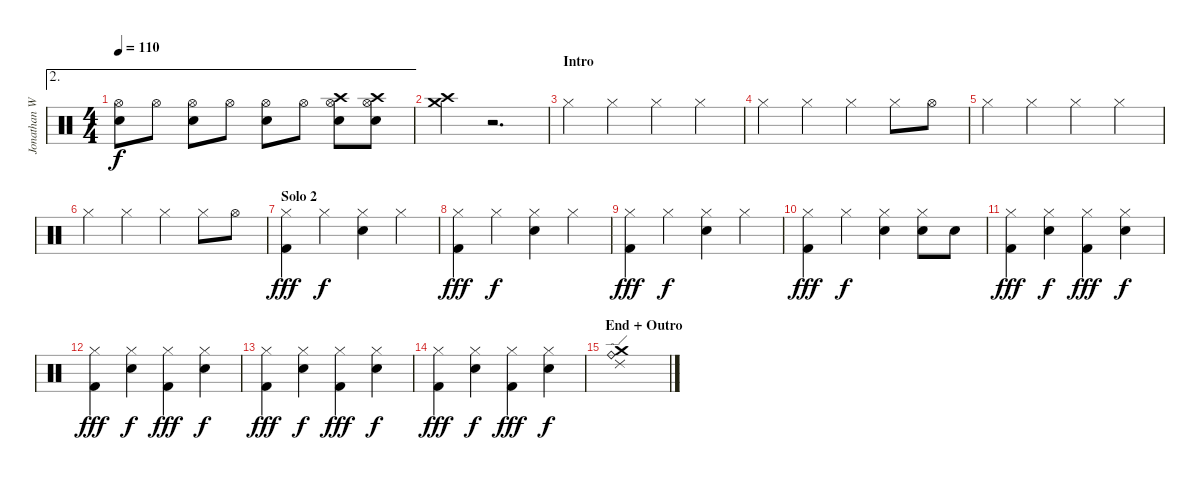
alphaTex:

\track ("Jonathan Wenzel" "Jonathan W") {instrument percussion}
\staff {score}
\articulation defaults
\ae 2
\ts (4 4)
\tempo 110
\clef neutral
\ks c
("Hi-Hat (open)" "Electric Snare (hit)").8{dy f} "Hi-Hat (open)".8 ("Hi-Hat (open)" "Electric Snare (hit)").8 "Hi-Hat (open)".8 ("Hi-Hat (open)" "Electric Snare (hit)").8 "Hi-Hat (open)".8 ("Crash high (hit)" "Hi-Hat (open)" "Electric Snare (hit)").8 ("Crash high (hit)" "Hi-Hat (open)" "Electric Snare (hit)").8 |
("Crash medium (hit)" "Crash high (hit)").4 r.2{d} |
\section ("" "Intro")
"Hi-Hat (closed)".4 "Hi-Hat (closed)".4 "Hi-Hat (closed)".4 "Hi-Hat (closed)".4 |
"Hi-Hat (closed)".4 "Hi-Hat (closed)".4 "Hi-Hat (closed)".4 "Hi-Hat (closed)".8 "Hi-Hat (open)".8 |
"Hi-Hat (closed)".4 "Hi-Hat (closed)".4 "Hi-Hat (closed)".4 "Hi-Hat (closed)".4 |
"Hi-Hat (closed)".4 "Hi-Hat (closed)".4 "Hi-Hat (closed)".4 "Hi-Hat (closed)".8 "Hi-Hat (open)".8 |
\section ("" "Solo 2")
("Hi-Hat (closed)" "Kick (hit) 2").4{dy fff} "Hi-Hat (closed)".4{dy f} ("Hi-Hat (closed)" "Electric Snare (hit)").4 "Hi-Hat (closed)".4 |
("Hi-Hat (closed)" "Kick (hit) 2").4{dy fff} "Hi-Hat (closed)".4{dy f} ("Hi-Hat (closed)" "Electric Snare (hit)").4 "Hi-Hat (closed)".4 |
("Hi-Hat (closed)" "Kick (hit) 2").4{dy fff} "Hi-Hat (closed)".4{dy f} ("Hi-Hat (closed)" "Electric Snare (hit)").4 "Hi-Hat (closed)".4 |
("Hi-Hat (closed)" "Kick (hit) 2").4{dy fff} "Hi-Hat (closed)".4{dy f} ("Hi-Hat (closed)" "Electric Snare (hit)").4 ("Hi-Hat (closed)" "Electric Snare (hit)").8 "Electric Snare (hit)".8 |
("Hi-Hat (closed)" "Kick (hit) 2").4{dy fff} ("Hi-Hat (closed)" "Electric Snare (hit)").4{dy f} ("Hi-Hat (closed)" "Kick (hit) 2").4{dy fff} ("Hi-Hat (closed)" "Electric Snare (hit)").4{dy f} |
("Hi-Hat (closed)" "Kick (hit) 2").4{dy fff} ("Hi-Hat (closed)" "Electric Snare (hit)").4{dy f} ("Hi-Hat (closed)" "Kick (hit) 2").4{dy fff} ("Hi-Hat (closed)" "Electric Snare (hit)").4{dy f} |
("Hi-Hat (closed)" "Kick (hit) 2").4{dy fff} ("Hi-Hat (closed)" "Electric Snare (hit)").4{dy f} ("Hi-Hat (closed)" "Kick (hit) 2").4{dy fff} ("Hi-Hat (closed)" "Electric Snare (hit)").4{dy f} |
("Hi-Hat (closed)" "Kick (hit) 2").4{dy fff} ("Hi-Hat (closed)" "Electric Snare (hit)").4{dy f} ("Hi-Hat (closed)" "Kick (hit) 2").4{dy fff} ("Hi-Hat (closed)" "Electric Snare (hit)").4{dy f} |
\section ("" "End + Outro")
("Crash medium (hit)" "Ride (edge) 2" "Ride (bell)").1
